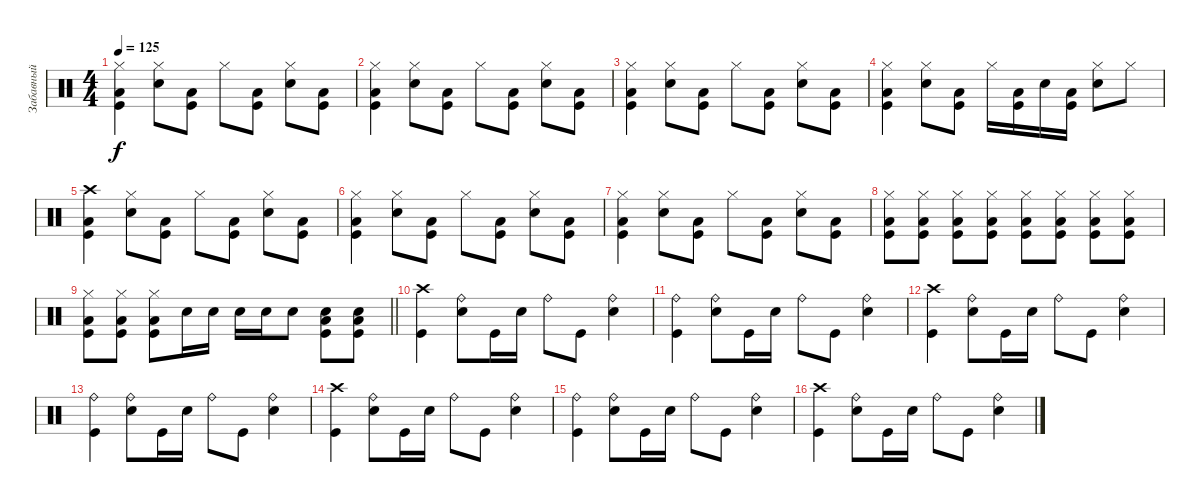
\track ("Забавный" "Забавный") {instrument percussion}
\staff {score}
\articulation defaults
\ts (4 4)
\tempo 125
\clef neutral
\ks c
("Hi-Hat (closed)" "Low Tom (hit)" "Kick (hit)").4{dy f} ("Hi-Hat (closed)" "Electric Snare (hit)").8 ("Low Tom (hit)" "Kick (hit)").8 "Hi-Hat (closed)".8 ("Low Tom (hit)" "Kick (hit)").8 ("Hi-Hat (closed)" "Electric Snare (hit)").8 ("Low Tom (hit)" "Kick (hit)").8 |
("Hi-Hat (closed)" "Low Tom (hit)" "Kick (hit)").4 ("Hi-Hat (closed)" "Electric Snare (hit)").8 ("Low Tom (hit)" "Kick (hit)").8 "Hi-Hat (closed)".8 ("Low Tom (hit)" "Kick (hit)").8 ("Hi-Hat (closed)" "Electric Snare (hit)").8 ("Low Tom (hit)" "Kick (hit)").8 |
("Hi-Hat (closed)" "Low Tom (hit)" "Kick (hit)").4 ("Hi-Hat (closed)" "Electric Snare (hit)").8 ("Low Tom (hit)" "Kick (hit)").8 "Hi-Hat (closed)".8 ("Low Tom (hit)" "Kick (hit)").8 ("Hi-Hat (closed)" "Electric Snare (hit)").8 ("Low Tom (hit)" "Kick (hit)").8 |
("Hi-Hat (closed)" "Low Tom (hit)" "Kick (hit)").4 ("Hi-Hat (closed)" "Electric Snare (hit)").8 ("Low Tom (hit)" "Kick (hit)").8 "Hi-Hat (closed)".16 ("Low Tom (hit)" "Kick (hit)").16 "Electric Snare (hit)".16 ("Low Tom (hit)" "Kick (hit)").16 ("Hi-Hat (closed)" "Electric Snare (hit)").8 "Hi-Hat (closed)".8 |
("Crash high (hit)" "Low Tom (hit)" "Kick (hit)").4 ("Hi-Hat (closed)" "Electric Snare (hit)").8 ("Low Tom (hit)" "Kick (hit)").8 "Hi-Hat (closed)".8 ("Low Tom (hit)" "Kick (hit)").8 ("Hi-Hat (closed)" "Electric Snare (hit)").8 ("Low Tom (hit)" "Kick (hit)").8 |
("Hi-Hat (closed)" "Low Tom (hit)" "Kick (hit)").4 ("Hi-Hat (closed)" "Electric Snare (hit)").8 ("Low Tom (hit)" "Kick (hit)").8 "Hi-Hat (closed)".8 ("Low Tom (hit)" "Kick (hit)").8 ("Hi-Hat (closed)" "Electric Snare (hit)").8 ("Low Tom (hit)" "Kick (hit)").8 |
("Hi-Hat (closed)" "Low Tom (hit)" "Kick (hit)").4 ("Hi-Hat (closed)" "Electric Snare (hit)").8 ("Low Tom (hit)" "Kick (hit)").8 "Hi-Hat (closed)".8 ("Low Tom (hit)" "Kick (hit)").8 ("Hi-Hat (closed)" "Electric Snare (hit)").8 ("Low Tom (hit)" "Kick (hit)").8 |
("Hi-Hat (closed)" "Low Tom (hit)" "Kick (hit)").8 ("Hi-Hat (closed)" "Low Tom (hit)" "Kick (hit)").8 ("Hi-Hat (closed)" "Low Tom (hit)" "Kick (hit)").8 ("Hi-Hat (closed)" "Low Tom (hit)" "Kick (hit)").8 ("Hi-Hat (closed)" "Low Tom (hit)" "Kick (hit)").8 ("Hi-Hat (closed)" "Low Tom (hit)" "Kick (hit)").8 ("Hi-Hat (closed)" "Low Tom (hit)" "Kick (hit)").8 ("Hi-Hat (closed)" "Low Tom (hit)" "Kick (hit)").8 |
\barLineRight lightlight
("Hi-Hat (closed)" "Low Tom (hit)" "Kick (hit)").8 ("Hi-Hat (closed)" "Low Tom (hit)" "Kick (hit)").8 ("Hi-Hat (closed)" "Low Tom (hit)" "Kick (hit)").8 "Electric Snare (hit)".16 "Electric Snare (hit)".16 "Electric Snare (hit)".16 "Electric Snare (hit)".16 "Electric Snare (hit)".8 ("Electric Snare (hit)" "Low Tom (hit)" "Kick (hit)").8 ("Electric Snare (hit)" "Low Tom (hit)" "Kick (hit)").8 |
("Crash high (hit)" "Kick (hit)").4 ("Ride (bell)" "Electric Snare (hit)").8 "Kick (hit)".16 "Electric Snare (hit)".16 "Ride (bell)".8 "Kick (hit)".8 ("Ride (bell)" "Electric Snare (hit)").4 |
("Ride (bell)" "Kick (hit)").4 ("Ride (bell)" "Electric Snare (hit)").8 "Kick (hit)".16 "Electric Snare (hit)".16 "Ride (bell)".8 "Kick (hit)".8 ("Ride (bell)" "Electric Snare (hit)").4 |
("Crash high (hit)" "Kick (hit)").4 ("Ride (bell)" "Electric Snare (hit)").8 "Kick (hit)".16 "Electric Snare (hit)".16 "Ride (bell)".8 "Kick (hit)".8 ("Ride (bell)" "Electric Snare (hit)").4 |
("Ride (bell)" "Kick (hit)").4 ("Ride (bell)" "Electric Snare (hit)").8 "Kick (hit)".16 "Electric Snare (hit)".16 "Ride (bell)".8 "Kick (hit)".8 ("Ride (bell)" "Electric Snare (hit)").4 |
("Crash high (hit)" "Kick (hit)").4 ("Ride (bell)" "Electric Snare (hit)").8 "Kick (hit)".16 "Electric Snare (hit)".16 "Ride (bell)".8 "Kick (hit)".8 ("Ride (bell)" "Electric Snare (hit)").4 |
("Ride (bell)" "Kick (hit)").4 ("Ride (bell)" "Electric Snare (hit)").8 "Kick (hit)".16 "Electric Snare (hit)".16 "Ride (bell)".8 "Kick (hit)".8 ("Ride (bell)" "Electric Snare (hit)").4 |
("Crash high (hit)" "Kick (hit)").4 ("Ride (bell)" "Electric Snare (hit)").8 "Kick (hit)".16 "Electric Snare (hit)".16 "Ride (bell)".8 "Kick (hit)".8 ("Ride (bell)" "Electric Snare (hit)").4
